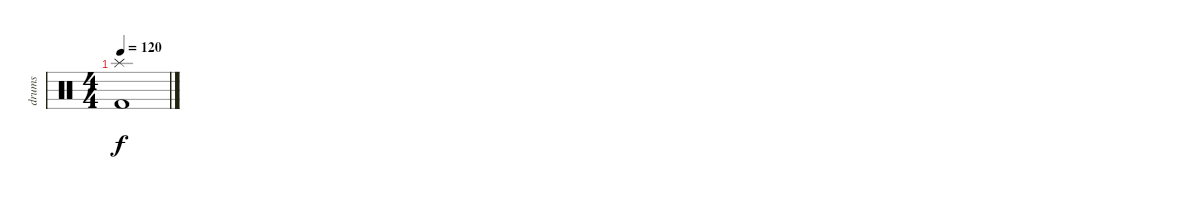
\track ("drums" "drums") {instrument percussion}
\staff {score}
\articulation defaults
\ts (4 4)
\tempo 120
\clef neutral
\ks c
("Splash (hit)" "Kick (hit) 2").1{dy f}
